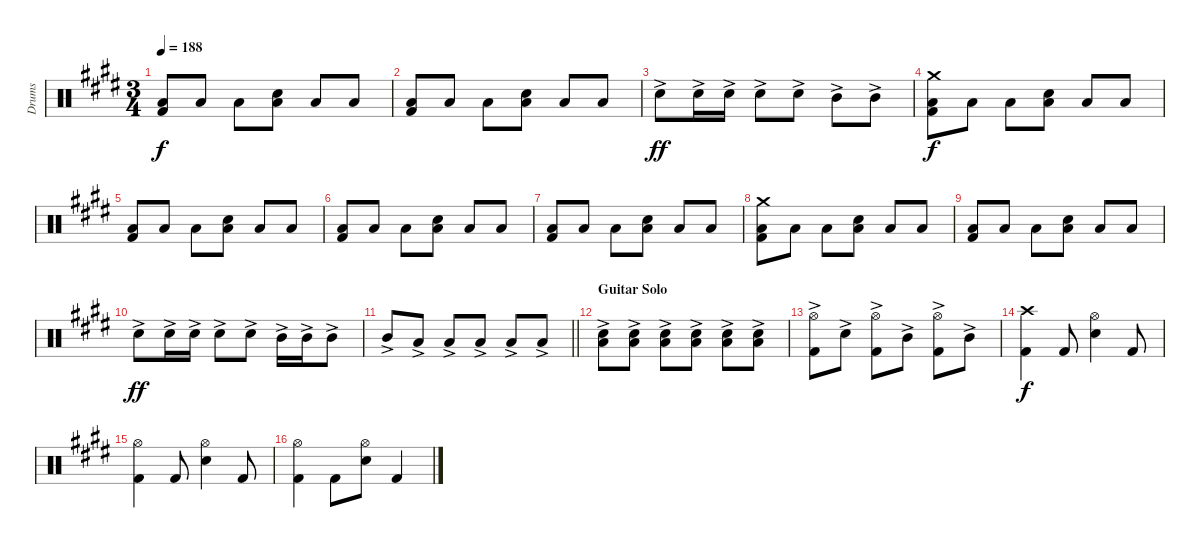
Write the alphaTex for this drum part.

\track ("Drums" "Drums") {instrument percussion}
\staff {score}
\articulation defaults
\ts (3 4)
\tempo 188
\clef neutral
\ks e
("Low Floor Tom (hit)" "Kick (hit) 2").8{dy f} "Low Floor Tom (hit)".8 "Low Floor Tom (hit)".8 ("Electric Snare (hit)" "Low Floor Tom (hit)").8 "Low Floor Tom (hit)".8 "Low Floor Tom (hit)".8 |
("Low Floor Tom (hit)" "Kick (hit) 2").8 "Low Floor Tom (hit)".8 "Low Floor Tom (hit)".8 ("Electric Snare (hit)" "Low Floor Tom (hit)").8 "Low Floor Tom (hit)".8 "Low Floor Tom (hit)".8 |
"Electric Snare (hit)"{ac}.8{dy ff} "Electric Snare (hit)"{ac}.16 "Electric Snare (hit)"{ac}.16 "Electric Snare (hit)"{ac}.8 "Electric Snare (hit)"{ac}.8 "Mid Tom (hit)"{ac}.8 "Mid Tom (hit)"{ac}.8 |
("Crash medium (hit)" "Low Floor Tom (hit)" "Kick (hit) 2").8{dy f} "Low Floor Tom (hit)".8 "Low Floor Tom (hit)".8 ("Electric Snare (hit)" "Low Floor Tom (hit)").8 "Low Floor Tom (hit)".8 "Low Floor Tom (hit)".8 |
("Low Floor Tom (hit)" "Kick (hit) 2").8 "Low Floor Tom (hit)".8 "Low Floor Tom (hit)".8 ("Electric Snare (hit)" "Low Floor Tom (hit)").8 "Low Floor Tom (hit)".8 "Low Floor Tom (hit)".8 |
("Low Floor Tom (hit)" "Kick (hit) 2").8 "Low Floor Tom (hit)".8 "Low Floor Tom (hit)".8 ("Electric Snare (hit)" "Low Floor Tom (hit)").8 "Low Floor Tom (hit)".8 "Low Floor Tom (hit)".8 |
("Low Floor Tom (hit)" "Kick (hit) 2").8 "Low Floor Tom (hit)".8 "Low Floor Tom (hit)".8 ("Electric Snare (hit)" "Low Floor Tom (hit)").8 "Low Floor Tom (hit)".8 "Low Floor Tom (hit)".8 |
("Crash medium (hit)" "Low Floor Tom (hit)" "Kick (hit) 2").8 "Low Floor Tom (hit)".8 "Low Floor Tom (hit)".8 ("Electric Snare (hit)" "Low Floor Tom (hit)").8 "Low Floor Tom (hit)".8 "Low Floor Tom (hit)".8 |
("Low Floor Tom (hit)" "Kick (hit) 2").8 "Low Floor Tom (hit)".8 "Low Floor Tom (hit)".8 ("Electric Snare (hit)" "Low Floor Tom (hit)").8 "Low Floor Tom (hit)".8 "Low Floor Tom (hit)".8 |
"Electric Snare (hit)"{ac}.8{dy ff} "Electric Snare (hit)"{ac}.16 "Electric Snare (hit)"{ac}.16 "Electric Snare (hit)"{ac}.8 "Electric Snare (hit)"{ac}.8 "Mid Tom (hit)"{ac}.16 "Mid Tom (hit)"{ac}.16 "Mid Tom (hit)"{ac}.8 |
\barLineRight lightlight "Mid Tom (hit)"{ac}.8 "Low Tom (hit)"{ac}.8 "Low Tom (hit)"{ac}.8 "Low Floor Tom (hit)"{ac}.8 "Low Floor Tom (hit)"{ac}.8 "Low Floor Tom (hit)"{ac}.8
|
\section ("" "Guitar Solo")
("Electric Snare (hit)"{ac} "Low Floor Tom (hit)"{ac}).8 ("Electric Snare (hit)"{ac} "Low Floor Tom (hit)"{ac}).8 ("Electric Snare (hit)"{ac} "Low Floor Tom (hit)"{ac}).8 ("Electric Snare (hit)"{ac} "Low Floor Tom (hit)"{ac}).8 ("Electric Snare (hit)"{ac} "Low Floor Tom (hit)"{ac}).8 ("Electric Snare (hit)"{ac} "Low Floor Tom (hit)"{ac}).8 |
("Hi-Hat (open)" "Kick (hit) 2"{ac}).8 "Electric Snare (hit)"{ac}.8 ("Hi-Hat (open)" "Kick (hit) 2"{ac}).8 "Mid Tom (hit)"{ac}.8 ("Hi-Hat (open)" "Kick (hit) 2"{ac}).8 "Mid Tom (hit)"{ac}.8 |
("Crash high (hit)" "Kick (hit) 2").4{dy f} "Kick (hit) 2".8 ("Hi-Hat (open)" "Electric Snare (hit)").4 "Kick (hit) 2".8 |
("Hi-Hat (open)" "Kick (hit) 2").4 "Kick (hit) 2".8 ("Hi-Hat (open)" "Electric Snare (hit)").4 "Kick (hit) 2".8 |
("Hi-Hat (open)" "Kick (hit) 2").4 "Kick (hit) 2".8 ("Hi-Hat (open)" "Electric Snare (hit)").8 "Kick (hit) 2".4
